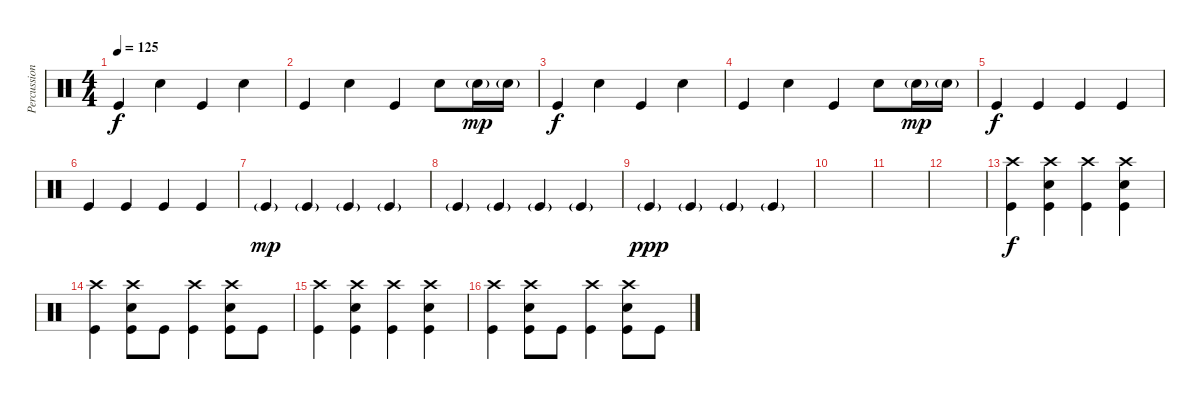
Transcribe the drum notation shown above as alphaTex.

\track ("Percussion" "Percussion") {instrument percussion}
\staff {score}
\articulation defaults
\ts (4 4)
\tempo 125
\clef neutral
\ks c "Kick (hit)".4{dy f} "Electric Snare (hit)".4 "Kick (hit)".4 "Electric Snare (hit)".4
|
"Kick (hit)".4 "Electric Snare (hit)".4 "Kick (hit)".4 "Electric Snare (hit)".8 "Electric Snare (hit)"{g}.16{dy mp} "Electric Snare (hit)"{g}.16 |
"Kick (hit)".4{dy f} "Electric Snare (hit)".4 "Kick (hit)".4 "Electric Snare (hit)".4 |
"Kick (hit)".4 "Electric Snare (hit)".4 "Kick (hit)".4 "Electric Snare (hit)".8 "Electric Snare (hit)"{g}.16{dy mp} "Electric Snare (hit)"{g}.16 |
"Kick (hit)".4{dy f} "Kick (hit)".4 "Kick (hit)".4 "Kick (hit)".4 |
"Kick (hit)".4 "Kick (hit)".4 "Kick (hit)".4 "Kick (hit)".4 |
"Kick (hit)"{g}.4{dy mp} "Kick (hit)"{g}.4 "Kick (hit)"{g}.4 "Kick (hit)"{g}.4 |
"Kick (hit)"{g}.4 "Kick (hit)"{g}.4 "Kick (hit)"{g}.4 "Kick (hit)"{g}.4 |
"Kick (hit)"{g}.4{dy ppp} "Kick (hit)"{g}.4 "Kick (hit)"{g}.4 "Kick (hit)"{g}.4 |
|
|
|
("Crash high (hit)" "Kick (hit)").4{dy f} ("Crash high (hit)" "Electric Snare (hit)" "Kick (hit)").4 ("Crash high (hit)" "Kick (hit)").4 ("Crash high (hit)" "Electric Snare (hit)" "Kick (hit)").4 |
("Crash high (hit)" "Kick (hit)").4 ("Crash high (hit)" "Electric Snare (hit)" "Kick (hit)").8 "Kick (hit)".8 ("Crash high (hit)" "Kick (hit)").4 ("Crash high (hit)" "Electric Snare (hit)" "Kick (hit)").8 "Kick (hit)".8 |
("Crash high (hit)" "Kick (hit)").4 ("Crash high (hit)" "Electric Snare (hit)" "Kick (hit)").4 ("Crash high (hit)" "Kick (hit)").4 ("Crash high (hit)" "Electric Snare (hit)" "Kick (hit)").4 |
("Crash high (hit)" "Kick (hit)").4 ("Crash high (hit)" "Electric Snare (hit)" "Kick (hit)").8 "Kick (hit)".8 ("Crash high (hit)" "Kick (hit)").4 ("Crash high (hit)" "Electric Snare (hit)" "Kick (hit)").8 "Kick (hit)".8
